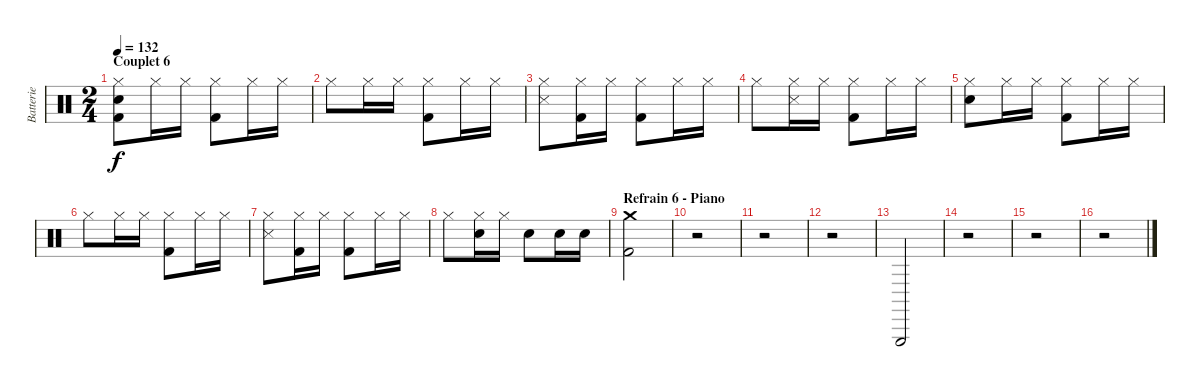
\track ("Batterie" "Batterie") {instrument percussion}
\staff {score}
\articulation defaults
\ts (2 4)
\section ("" "Couplet 6")
\tempo 132
\clef neutral
\ks c
("Hi-Hat (closed)" "Snare (hit) 2" "Kick (hit) 2").8{dy f} "Hi-Hat (closed)".16 "Hi-Hat (closed)".16 ("Hi-Hat (closed)" "Kick (hit) 2").8 "Hi-Hat (closed)".16 "Hi-Hat (closed)".16 |
"Hi-Hat (closed)".8 "Hi-Hat (closed)".16 "Hi-Hat (closed)".16 ("Hi-Hat (closed)" "Kick (hit) 2").8 "Hi-Hat (closed)".16 "Hi-Hat (closed)".16 |
("Hi-Hat (closed)" "Snare (side stick) 3").8 ("Hi-Hat (closed)" "Kick (hit) 2").16 "Hi-Hat (closed)".16 ("Hi-Hat (closed)" "Kick (hit) 2").8 "Hi-Hat (closed)".16 "Hi-Hat (closed)".16 |
"Hi-Hat (closed)".8 ("Hi-Hat (closed)" "Snare (side stick) 3").16 "Hi-Hat (closed)".16 ("Hi-Hat (closed)" "Kick (hit) 2").8 "Hi-Hat (closed)".16 "Hi-Hat (closed)".16 |
("Hi-Hat (closed)" "Snare (hit) 2").8 "Hi-Hat (closed)".16 "Hi-Hat (closed)".16 ("Hi-Hat (closed)" "Kick (hit) 2").8 "Hi-Hat (closed)".16 "Hi-Hat (closed)".16 |
"Hi-Hat (closed)".8 "Hi-Hat (closed)".16 "Hi-Hat (closed)".16 ("Hi-Hat (closed)" "Kick (hit) 2").8 "Hi-Hat (closed)".16 "Hi-Hat (closed)".16 |
("Hi-Hat (closed)" "Snare (side stick) 3").8 ("Hi-Hat (closed)" "Kick (hit) 2").16 "Hi-Hat (closed)".16 ("Hi-Hat (closed)" "Kick (hit) 2").8 "Hi-Hat (closed)".16 "Hi-Hat (closed)".16 |
"Hi-Hat (closed)".8 ("Hi-Hat (closed)" "Snare (hit) 2").16 "Hi-Hat (closed)".16 "Snare (hit) 2".8 "Snare (hit) 2".16 "Snare (hit) 2".16 |
\section ("" "Refrain 6 - Piano")
("Crash medium (hit)" "Kick (hit) 2").2 |
r.2 |
r.2 |
r.2 |
"Triangle (hit)".2 |
r.2 |
r.2 |
r.2
